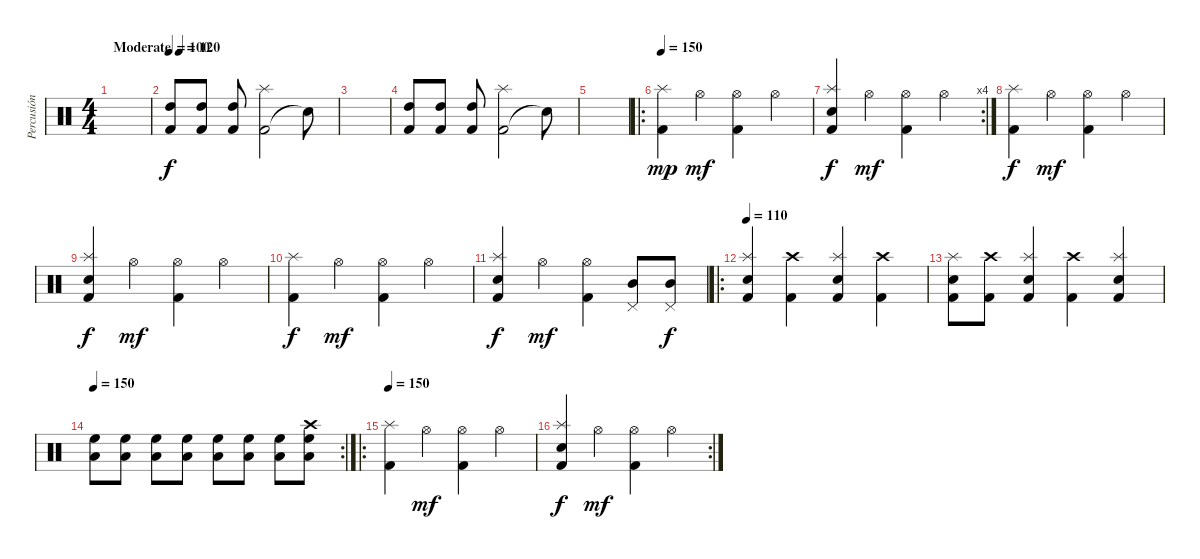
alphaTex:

\track ("Percusión" "Percusión") {instrument percussion}
\staff {score}
\articulation defaults
\ts (4 4)
\tempo (120 "Moderate")
\clef neutral
\ks c
|
\tempo 100
("Kick (hit) 2" "High Tom (hit)").8 ("Kick (hit) 2" "High Tom (hit)").8 ("Kick (hit) 2" "High Tom (hit)").8 ("Kick (hit) 2" "Splash (hit)").2 "Snare (hit)"{t}.8 |
|
("Kick (hit) 2" "High Tom (hit)").8 ("Kick (hit) 2" "High Tom (hit)").8 ("Kick (hit) 2" "High Tom (hit)").8 ("Kick (hit) 2" "Splash (hit)").2 "Snare (hit)"{t}.8 |
|
\ro
\tempo 150
("Splash (hit)" "Kick (hit) 2").4{dy mp} "Hi-Hat (open)".4{dy mf} ("Hi-Hat (open)" "Kick (hit) 2").4 "Hi-Hat (open)".4 |
\rc 4
("Splash (hit)" "Electric Snare (hit)" "Kick (hit) 2").4{dy f} "Hi-Hat (open)".4{dy mf} ("Hi-Hat (open)" "Kick (hit) 2").4 "Hi-Hat (open)".4 |
("Splash (hit)" "Kick (hit) 2").4{dy f} "Hi-Hat (open)".4{dy mf} ("Hi-Hat (open)" "Kick (hit) 2").4 "Hi-Hat (open)".4 |
("Splash (hit)" "Electric Snare (hit)" "Kick (hit) 2").4{dy f} "Hi-Hat (open)".4{dy mf} ("Hi-Hat (open)" "Kick (hit) 2").4 "Hi-Hat (open)".4 |
("Splash (hit)" "Kick (hit) 2").4{dy f} "Hi-Hat (open)".4{dy mf} ("Hi-Hat (open)" "Kick (hit) 2").4 "Hi-Hat (open)".4 |
("Splash (hit)" "Electric Snare (hit)" "Kick (hit) 2").4{dy f} "Hi-Hat (open)".4{dy mf} ("Hi-Hat (open)" "Kick (hit) 2").4 ("Mid Tom (hit)" "Pedal Hi-Hat (hit)").8 ("Mid Tom (hit)" "Pedal Hi-Hat (hit)").8{dy f} |
\ro
\tempo 110
("Splash (hit)" "Electric Snare (hit)" "Kick (hit) 2").4 ("Crash high (hit)" "Kick (hit) 2").4 ("Splash (hit)" "Electric Snare (hit)" "Kick (hit) 2").4 ("Crash high (hit)" "Kick (hit) 2").4 |
("Splash (hit)" "Electric Snare (hit)" "Kick (hit) 2").8 ("Crash high (hit)" "Kick (hit) 2").8 ("Splash (hit)" "Electric Snare (hit)" "Kick (hit) 2").4 ("Crash high (hit)" "Kick (hit) 2").4 ("Splash (hit)" "Electric Snare (hit)" "Kick (hit) 2").4 |
\rc 2
\tempo 150
("Low Floor Tom (hit)" "High Floor Tom (hit)").8 ("Low Floor Tom (hit)" "High Floor Tom (hit)").8 ("Low Floor Tom (hit)" "High Floor Tom (hit)").8 ("Low Floor Tom (hit)" "High Floor Tom (hit)").8 ("Low Floor Tom (hit)" "High Floor Tom (hit)").8 ("Low Floor Tom (hit)" "High Floor Tom (hit)").8 ("Low Floor Tom (hit)" "High Floor Tom (hit)").8 ("Low Floor Tom (hit)" "High Floor Tom (hit)" "Crash high (hit)").8 |
\ro
\tempo 150
("Splash (hit)" "Kick (hit) 2").4 "Hi-Hat (open)".4{dy mf} ("Hi-Hat (open)" "Kick (hit) 2").4 "Hi-Hat (open)".4 |
\rc 2
("Splash (hit)" "Electric Snare (hit)" "Kick (hit) 2").4{dy f} "Hi-Hat (open)".4{dy mf} ("Hi-Hat (open)" "Kick (hit) 2").4 "Hi-Hat (open)".4
